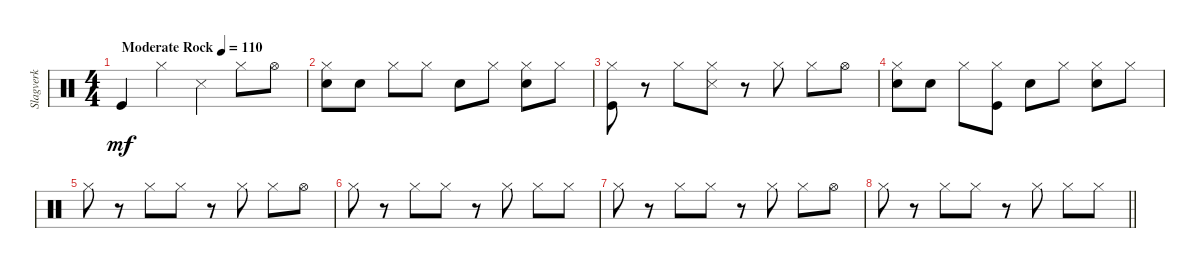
\track ("Slagverk" "Slagverk") {instrument percussion}
\staff {score}
\articulation defaults
\ts (4 4)
\tempo (110 "Moderate Rock")
\clef neutral
\ks c "Kick (hit)".4{dy mf} "Hi-Hat (closed)".4 "Snare (side stick) 3".4 "Hi-Hat (closed)".8 "Hi-Hat (open)".8
|
("Snare (hit) 2" "Hi-Hat (closed)").8 "Snare (hit) 2".8 "Hi-Hat (closed)".8 "Hi-Hat (closed)".8 "Snare (hit) 2".8 "Hi-Hat (closed)".8 ("Snare (hit) 2" "Hi-Hat (closed)").8 "Hi-Hat (closed)".8 |
("Kick (hit)" "Hi-Hat (closed)").8 r.8 "Hi-Hat (closed)".8 ("Snare (side stick) 3" "Hi-Hat (closed)").8 r.8 "Hi-Hat (closed)".8 "Hi-Hat (closed)".8 "Hi-Hat (open)".8 |
("Snare (hit) 2" "Hi-Hat (closed)").8 "Snare (hit) 2".8 "Hi-Hat (closed)".8 ("Kick (hit)" "Hi-Hat (closed)").8 "Snare (hit) 2".8 "Hi-Hat (closed)".8 ("Snare (hit) 2" "Hi-Hat (closed)").8 "Hi-Hat (closed)".8 |
"Hi-Hat (closed)".8 r.8 "Hi-Hat (closed)".8 "Hi-Hat (closed)".8 r.8 "Hi-Hat (closed)".8 "Hi-Hat (closed)".8 "Hi-Hat (open)".8 |
"Hi-Hat (closed)".8 r.8 "Hi-Hat (closed)".8 "Hi-Hat (closed)".8 r.8 "Hi-Hat (closed)".8 "Hi-Hat (closed)".8 "Hi-Hat (closed)".8 |
"Hi-Hat (closed)".8 r.8 "Hi-Hat (closed)".8 "Hi-Hat (closed)".8 r.8 "Hi-Hat (closed)".8 "Hi-Hat (closed)".8 "Hi-Hat (open)".8 |
\barLineRight lightlight "Hi-Hat (closed)".8
r.8 "Hi-Hat (closed)".8 "Hi-Hat (closed)".8 r.8 "Hi-Hat (closed)".8 "Hi-Hat (closed)".8 "Hi-Hat (closed)".8
